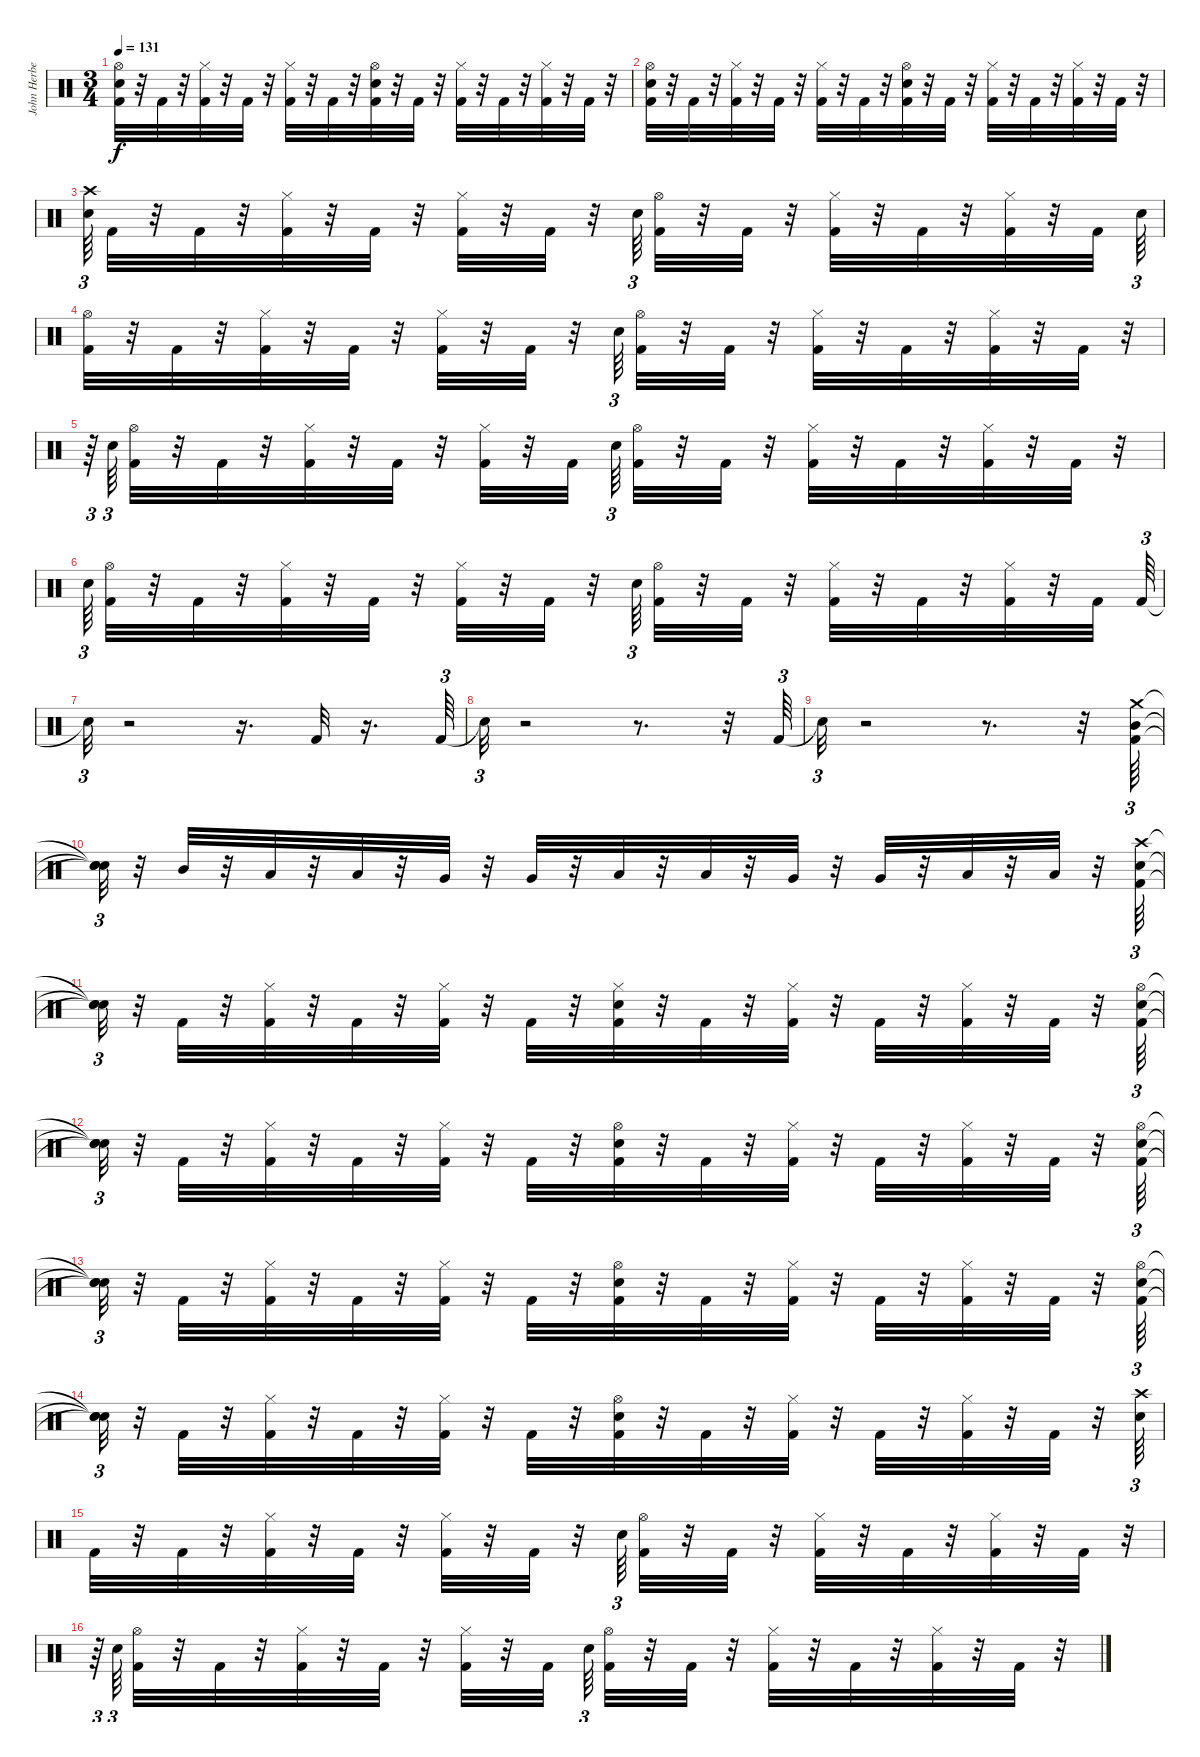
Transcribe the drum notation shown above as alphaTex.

\track ("John Herbert" "John Herbe") {instrument percussion}
\staff {score}
\articulation defaults
\ts (3 4)
\tempo 131
\clef neutral
\ks c
("Snare (hit) 2" "Kick (hit) 2" "Hi-Hat (open)").32{dy f} r.32 "Kick (hit) 2".32 r.32 ("Kick (hit) 2" "Hi-Hat (closed)").32 r.32 "Kick (hit) 2".32 r.32 ("Kick (hit) 2" "Hi-Hat (closed)").32 r.32 "Kick (hit) 2".32 r.32 ("Snare (hit) 2" "Kick (hit) 2" "Hi-Hat (open)").32 r.32 "Kick (hit) 2".32 r.32 ("Kick (hit) 2" "Hi-Hat (closed)").32 r.32 "Kick (hit) 2".32 r.32 ("Kick (hit) 2" "Hi-Hat (closed)").32 r.32 "Kick (hit) 2".32 r.32 |
("Snare (hit) 2" "Kick (hit) 2" "Hi-Hat (open)").32 r.32 "Kick (hit) 2".32 r.32 ("Kick (hit) 2" "Hi-Hat (closed)").32 r.32 "Kick (hit) 2".32 r.32 ("Kick (hit) 2" "Hi-Hat (closed)").32 r.32 "Kick (hit) 2".32 r.32 ("Snare (hit) 2" "Kick (hit) 2" "Hi-Hat (open)").32 r.32 "Kick (hit) 2".32 r.32 ("Kick (hit) 2" "Hi-Hat (closed)").32 r.32 "Kick (hit) 2".32 r.32 ("Kick (hit) 2" "Hi-Hat (closed)").32 r.32 "Kick (hit) 2".32 r.32 |
("Crash high (hit)" "Snare (hit) 2").64{tu (3 2)} "Kick (hit) 2".32 r.32 "Kick (hit) 2".32 r.32 ("Kick (hit) 2" "Hi-Hat (closed)").32 r.32 "Kick (hit) 2".32 r.32 ("Kick (hit) 2" "Hi-Hat (closed)").32 r.32 "Kick (hit) 2".32 r.32 "Snare (hit) 2".64{tu (3 2)} ("Kick (hit) 2" "Hi-Hat (open)").32 r.32 "Kick (hit) 2".32 r.32 ("Kick (hit) 2" "Hi-Hat (closed)").32 r.32 "Kick (hit) 2".32 r.32 ("Kick (hit) 2" "Hi-Hat (closed)").32 r.32 "Kick (hit) 2".32 "Snare (hit) 2".64{tu (3 2)} |
("Kick (hit) 2" "Hi-Hat (open)").32 r.32 "Kick (hit) 2".32 r.32 ("Kick (hit) 2" "Hi-Hat (closed)").32 r.32 "Kick (hit) 2".32 r.32 ("Kick (hit) 2" "Hi-Hat (closed)").32 r.32 "Kick (hit) 2".32 r.32 "Snare (hit) 2".64{tu (3 2)} ("Kick (hit) 2" "Hi-Hat (open)").32 r.32 "Kick (hit) 2".32 r.32 ("Kick (hit) 2" "Hi-Hat (closed)").32 r.32 "Kick (hit) 2".32 r.32 ("Kick (hit) 2" "Hi-Hat (closed)").32 r.32 "Kick (hit) 2".32 r.32{tu (3 2)} |
r.64{tu (3 2)} "Snare (hit) 2".64{tu (3 2)} ("Kick (hit) 2" "Hi-Hat (open)").32 r.32 "Kick (hit) 2".32 r.32 ("Kick (hit) 2" "Hi-Hat (closed)").32 r.32 "Kick (hit) 2".32 r.32 ("Kick (hit) 2" "Hi-Hat (closed)").32 r.32 "Kick (hit) 2".32 "Snare (hit) 2".64{tu (3 2)} ("Kick (hit) 2" "Hi-Hat (open)").32 r.32 "Kick (hit) 2".32 r.32 ("Kick (hit) 2" "Hi-Hat (closed)").32 r.32 "Kick (hit) 2".32 r.32 ("Kick (hit) 2" "Hi-Hat (closed)").32 r.32 "Kick (hit) 2".32 r.32 |
"Snare (hit) 2".64{tu (3 2)} ("Kick (hit) 2" "Hi-Hat (open)").32 r.32 "Kick (hit) 2".32 r.32 ("Kick (hit) 2" "Hi-Hat (closed)").32 r.32 "Kick (hit) 2".32 r.32 ("Kick (hit) 2" "Hi-Hat (closed)").32 r.32 "Kick (hit) 2".32 r.32 "Snare (hit) 2".64{tu (3 2)} ("Kick (hit) 2" "Hi-Hat (open)").32 r.32 "Kick (hit) 2".32 r.32 ("Kick (hit) 2" "Hi-Hat (closed)").32 r.32 "Kick (hit) 2".32 r.32 ("Kick (hit) 2" "Hi-Hat (closed)").32 r.32 "Kick (hit) 2".32 "Kick (hit) 2".64{tu (3 2)} |
"Snare (hit)"{t}.32{tu (3 2)} r.2 r.16{d} "Kick (hit) 2".32 r.16{d} "Kick (hit) 2".64{tu (3 2)} |
"Snare (hit)"{t}.32{tu (3 2)} r.2 r.8{d} r.32 "Kick (hit) 2".64{tu (3 2)} |
"Snare (hit)"{t}.32{tu (3 2)} r.2 r.8{d} r.32 ("Mid Tom (hit)" "Crash medium (hit)" "Kick (hit) 2").64{tu (3 2)} |
("Snare (hit)"{t} "Snare (hit)"{t} "Snare (hit)"{t}).32{tu (3 2)} r.32 "Mid Tom (hit)".32 r.32 "Low Tom (hit)".32 r.32 "Low Tom (hit)".32 r.32 "Very Low Tom (hit)".32 r.32 "Very Low Tom (hit)".32 r.32 "Low Tom (hit)".32 r.32 "Low Tom (hit)".32 r.32 "Very Low Tom (hit)".32 r.32 "Very Low Tom (hit)".32 r.32 "Low Floor Tom (hit)".32 r.32 "Low Floor Tom (hit)".32 r.32 ("Snare (hit) 2" "Kick (hit) 2" "Crash high (hit)").64{tu (3 2)} |
("Snare (hit)"{t} "Snare (hit)"{t} "Snare (hit)"{t}).32{tu (3 2)} r.32 "Kick (hit) 2".32 r.32 ("Kick (hit) 2" "Hi-Hat (closed)").32 r.32 "Kick (hit) 2".32 r.32 ("Kick (hit) 2" "Hi-Hat (closed)").32 r.32 "Kick (hit) 2".32 r.32 ("Snare (hit) 2" "Kick (hit) 2" "Hi-Hat (closed)").32 r.32 "Kick (hit) 2".32 r.32 ("Kick (hit) 2" "Hi-Hat (closed)").32 r.32 "Kick (hit) 2".32 r.32 ("Kick (hit) 2" "Hi-Hat (closed)").32 r.32 "Kick (hit) 2".32 r.32 ("Snare (hit) 2" "Kick (hit) 2" "Hi-Hat (open)").64{tu (3 2)} |
("Snare (hit)"{t} "Snare (hit)"{t} "Snare (hit)"{t}).32{tu (3 2)} r.32 "Kick (hit) 2".32 r.32 ("Kick (hit) 2" "Hi-Hat (closed)").32 r.32 "Kick (hit) 2".32 r.32 ("Kick (hit) 2" "Hi-Hat (closed)").32 r.32 "Kick (hit) 2".32 r.32 ("Snare (hit) 2" "Kick (hit) 2" "Hi-Hat (open)").32 r.32 "Kick (hit) 2".32 r.32 ("Kick (hit) 2" "Hi-Hat (closed)").32 r.32 "Kick (hit) 2".32 r.32 ("Kick (hit) 2" "Hi-Hat (closed)").32 r.32 "Kick (hit) 2".32 r.32 ("Snare (hit) 2" "Kick (hit) 2" "Hi-Hat (open)").64{tu (3 2)} |
("Snare (hit)"{t} "Snare (hit)"{t} "Snare (hit)"{t}).32{tu (3 2)} r.32 "Kick (hit) 2".32 r.32 ("Kick (hit) 2" "Hi-Hat (closed)").32 r.32 "Kick (hit) 2".32 r.32 ("Kick (hit) 2" "Hi-Hat (closed)").32 r.32 "Kick (hit) 2".32 r.32 ("Snare (hit) 2" "Kick (hit) 2" "Hi-Hat (open)").32 r.32 "Kick (hit) 2".32 r.32 ("Kick (hit) 2" "Hi-Hat (closed)").32 r.32 "Kick (hit) 2".32 r.32 ("Kick (hit) 2" "Hi-Hat (closed)").32 r.32 "Kick (hit) 2".32 r.32 ("Snare (hit) 2" "Kick (hit) 2" "Hi-Hat (open)").64{tu (3 2)} |
("Snare (hit)"{t} "Snare (hit)"{t} "Snare (hit)"{t}).32{tu (3 2)} r.32 "Kick (hit) 2".32 r.32 ("Kick (hit) 2" "Hi-Hat (closed)").32 r.32 "Kick (hit) 2".32 r.32 ("Kick (hit) 2" "Hi-Hat (closed)").32 r.32 "Kick (hit) 2".32 r.32 ("Snare (hit) 2" "Kick (hit) 2" "Hi-Hat (open)").32 r.32 "Kick (hit) 2".32 r.32 ("Kick (hit) 2" "Hi-Hat (closed)").32 r.32 "Kick (hit) 2".32 r.32 ("Kick (hit) 2" "Hi-Hat (closed)").32 r.32 "Kick (hit) 2".32 r.32 ("Crash high (hit)" "Snare (hit) 2").64{tu (3 2)} |
"Kick (hit) 2".32 r.32 "Kick (hit) 2".32 r.32 ("Kick (hit) 2" "Hi-Hat (closed)").32 r.32 "Kick (hit) 2".32 r.32 ("Kick (hit) 2" "Hi-Hat (closed)").32 r.32 "Kick (hit) 2".32 r.32 "Snare (hit) 2".64{tu (3 2)} ("Kick (hit) 2" "Hi-Hat (open)").32 r.32 "Kick (hit) 2".32 r.32 ("Kick (hit) 2" "Hi-Hat (closed)").32 r.32 "Kick (hit) 2".32 r.32 ("Kick (hit) 2" "Hi-Hat (closed)").32 r.32 "Kick (hit) 2".32 r.32{tu (3 2)} |
r.64{tu (3 2)} "Snare (hit) 2".64{tu (3 2)} ("Kick (hit) 2" "Hi-Hat (open)").32 r.32 "Kick (hit) 2".32 r.32 ("Kick (hit) 2" "Hi-Hat (closed)").32 r.32 "Kick (hit) 2".32 r.32 ("Kick (hit) 2" "Hi-Hat (closed)").32 r.32 "Kick (hit) 2".32 "Snare (hit) 2".64{tu (3 2)} ("Kick (hit) 2" "Hi-Hat (open)").32 r.32 "Kick (hit) 2".32 r.32 ("Kick (hit) 2" "Hi-Hat (closed)").32 r.32 "Kick (hit) 2".32 r.32 ("Kick (hit) 2" "Hi-Hat (closed)").32 r.32 "Kick (hit) 2".32 r.32
